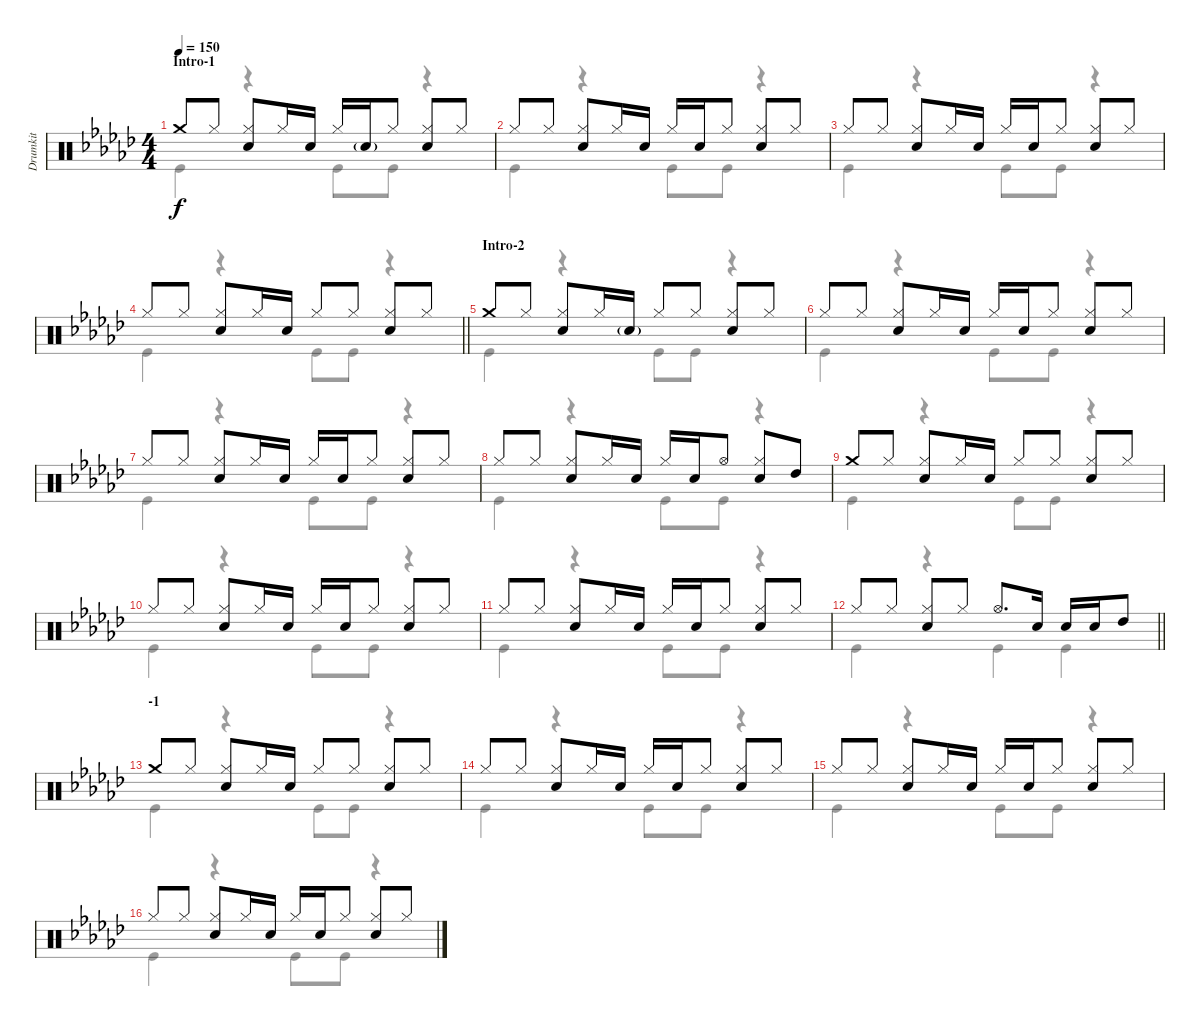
\track ("Drumkit" "Drumkit") {instrument percussion}
\staff {score}
\articulation defaults
\voice
\ts (4 4)
\section ("" "Intro-1")
\tempo 150
\clef neutral
\ks ebminor "Crash medium (hit)".8{dy f} "Hi-Hat (closed)".8
("Hi-Hat (closed)" "Snare (hit) 2").8 "Hi-Hat (closed)".16 "Snare (hit) 2".16 "Hi-Hat (closed)".16 "Snare (hit) 2"{g}.16 "Hi-Hat (closed)".8 ("Hi-Hat (closed)" "Snare (hit) 2").8 "Hi-Hat (closed)".8 |
"Hi-Hat (closed)".8 "Hi-Hat (closed)".8 ("Hi-Hat (closed)" "Snare (hit) 2").8 "Hi-Hat (closed)".16 "Snare (hit) 2".16 "Hi-Hat (closed)".16 "Snare (hit) 2".16 "Hi-Hat (closed)".8 ("Hi-Hat (closed)" "Snare (hit) 2").8 "Hi-Hat (closed)".8 |
"Hi-Hat (closed)".8 "Hi-Hat (closed)".8 ("Hi-Hat (closed)" "Snare (hit) 2").8 "Hi-Hat (closed)".16 "Snare (hit) 2".16 "Hi-Hat (closed)".16 "Snare (hit) 2".16 "Hi-Hat (closed)".8 ("Hi-Hat (closed)" "Snare (hit) 2").8 "Hi-Hat (closed)".8 |
\barLineRight lightlight "Hi-Hat (closed)".8 "Hi-Hat (closed)".8
("Hi-Hat (closed)" "Snare (hit) 2").8 "Hi-Hat (closed)".16 "Snare (hit) 2".16 "Hi-Hat (closed)".8 "Hi-Hat (closed)".8 ("Hi-Hat (closed)" "Snare (hit) 2").8 "Hi-Hat (closed)".8 |
\section ("" "Intro-2")
"Crash medium (hit)".8 "Hi-Hat (closed)".8 ("Hi-Hat (closed)" "Snare (hit) 2").8 "Hi-Hat (closed)".16 "Snare (hit) 2"{g}.16 "Hi-Hat (closed)".8 "Hi-Hat (closed)".8 ("Hi-Hat (closed)" "Snare (hit) 2").8 "Hi-Hat (closed)".8 |
"Hi-Hat (closed)".8 "Hi-Hat (closed)".8 ("Hi-Hat (closed)" "Snare (hit) 2").8 "Hi-Hat (closed)".16 "Snare (hit) 2".16 "Hi-Hat (closed)".16 "Snare (hit) 2".16 "Hi-Hat (closed)".8 ("Hi-Hat (closed)" "Snare (hit) 2").8 "Hi-Hat (closed)".8 |
"Hi-Hat (closed)".8 "Hi-Hat (closed)".8 ("Hi-Hat (closed)" "Snare (hit) 2").8 "Hi-Hat (closed)".16 "Snare (hit) 2".16 "Hi-Hat (closed)".16 "Snare (hit) 2".16 "Hi-Hat (closed)".8 ("Hi-Hat (closed)" "Snare (hit) 2").8 "Hi-Hat (closed)".8 |
"Hi-Hat (closed)".8 "Hi-Hat (closed)".8 ("Hi-Hat (closed)" "Snare (hit) 2").8 "Hi-Hat (closed)".16 "Snare (hit) 2".16 "Hi-Hat (closed)".16 "Snare (hit) 2".16 "Hi-Hat (open)".8 ("Hi-Hat (closed)" "Snare (hit) 2").8 "High Tom (hit)".8 |
"Crash medium (hit)".8 "Hi-Hat (closed)".8 ("Hi-Hat (closed)" "Snare (hit) 2").8 "Hi-Hat (closed)".16 "Snare (hit) 2".16 "Hi-Hat (closed)".8 "Hi-Hat (closed)".8 ("Hi-Hat (closed)" "Snare (hit) 2").8 "Hi-Hat (closed)".8 |
"Hi-Hat (closed)".8 "Hi-Hat (closed)".8 ("Hi-Hat (closed)" "Snare (hit) 2").8 "Hi-Hat (closed)".16 "Snare (hit) 2".16 "Hi-Hat (closed)".16 "Snare (hit) 2".16 "Hi-Hat (closed)".8 ("Hi-Hat (closed)" "Snare (hit) 2").8 "Hi-Hat (closed)".8 |
"Hi-Hat (closed)".8 "Hi-Hat (closed)".8 ("Hi-Hat (closed)" "Snare (hit) 2").8 "Hi-Hat (closed)".16 "Snare (hit) 2".16 "Hi-Hat (closed)".16 "Snare (hit) 2".16 "Hi-Hat (closed)".8 ("Hi-Hat (closed)" "Snare (hit) 2").8 "Hi-Hat (closed)".8 |
\barLineRight lightlight "Hi-Hat (closed)".8 "Hi-Hat (closed)".8
("Hi-Hat (closed)" "Snare (hit) 2").8 "Hi-Hat (closed)".8 "Hi-Hat (open)".8{d} "Snare (hit) 2".16 "Snare (hit) 2".16 "Snare (hit) 2".16 "High Tom (hit)".8 |
\section ("" "-1")
"Crash medium (hit)".8 "Hi-Hat (closed)".8 ("Hi-Hat (closed)" "Snare (hit) 2").8 "Hi-Hat (closed)".16 "Snare (hit) 2".16 "Hi-Hat (closed)".8 "Hi-Hat (closed)".8 ("Hi-Hat (closed)" "Snare (hit) 2").8 "Hi-Hat (closed)".8 |
"Hi-Hat (closed)".8 "Hi-Hat (closed)".8 ("Hi-Hat (closed)" "Snare (hit) 2").8 "Hi-Hat (closed)".16 "Snare (hit) 2".16 "Hi-Hat (closed)".16 "Snare (hit) 2".16 "Hi-Hat (closed)".8 ("Hi-Hat (closed)" "Snare (hit) 2").8 "Hi-Hat (closed)".8 |
"Hi-Hat (closed)".8 "Hi-Hat (closed)".8 ("Hi-Hat (closed)" "Snare (hit) 2").8 "Hi-Hat (closed)".16 "Snare (hit) 2".16 "Hi-Hat (closed)".16 "Snare (hit) 2".16 "Hi-Hat (closed)".8 ("Hi-Hat (closed)" "Snare (hit) 2").8 "Hi-Hat (closed)".8 |
"Hi-Hat (closed)".8 "Hi-Hat (closed)".8 ("Hi-Hat (closed)" "Snare (hit) 2").8 "Hi-Hat (closed)".16 "Snare (hit) 2".16 "Hi-Hat (closed)".16 "Snare (hit) 2".16 "Hi-Hat (closed)".8 ("Hi-Hat (closed)" "Snare (hit) 2").8 "Hi-Hat (closed)".8
\voice
\clef neutral
\ottava regular
\simile none
\ks ebminor "Kick (hit)".4{dy f}
r.4 "Kick (hit)".8 "Kick (hit)".8 r.4 |
"Kick (hit)".4 r.4 "Kick (hit)".8 "Kick (hit)".8 r.4 |
"Kick (hit)".4 r.4 "Kick (hit)".8 "Kick (hit)".8 r.4 |
\barLineRight lightlight "Kick (hit)".4
r.4 "Kick (hit)".8 "Kick (hit)".8 r.4 |
"Kick (hit)".4 r.4 "Kick (hit)".8 "Kick (hit)".8 r.4 |
"Kick (hit)".4 r.4 "Kick (hit)".8 "Kick (hit)".8 r.4 |
"Kick (hit)".4 r.4 "Kick (hit)".8 "Kick (hit)".8 r.4 |
"Kick (hit)".4 r.4 "Kick (hit)".8 "Kick (hit)".8 r.4 |
"Kick (hit)".4 r.4 "Kick (hit)".8 "Kick (hit)".8 r.4 |
"Kick (hit)".4 r.4 "Kick (hit)".8 "Kick (hit)".8 r.4 |
"Kick (hit)".4 r.4 "Kick (hit)".8 "Kick (hit)".8 r.4 |
\barLineRight lightlight "Kick (hit)".4
r.4 "Kick (hit)".4 "Kick (hit)".4 |
"Kick (hit)".4 r.4 "Kick (hit)".8 "Kick (hit)".8 r.4 |
"Kick (hit)".4 r.4 "Kick (hit)".8 "Kick (hit)".8 r.4 |
"Kick (hit)".4 r.4 "Kick (hit)".8 "Kick (hit)".8 r.4 |
"Kick (hit)".4 r.4 "Kick (hit)".8 "Kick (hit)".8 r.4
